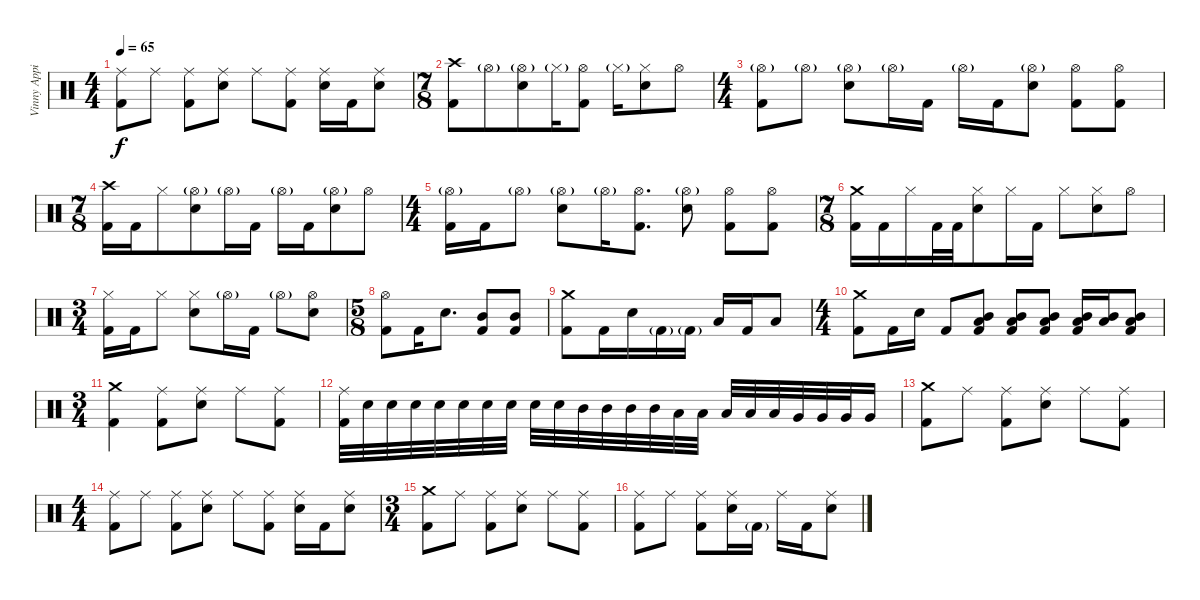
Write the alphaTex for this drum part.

\track ("Vinny Appice" "Vinny Appi") {instrument percussion}
\staff {score}
\articulation defaults
\ts (4 4)
\tempo 65
\clef neutral
\ks c
("Ride (middle)" "Kick (hit) 2").8{dy f} "Ride (middle)".8 ("Ride (middle)" "Kick (hit) 2").8 ("Ride (middle)" "Snare (hit) 2").8 "Ride (middle)".8 ("Ride (middle)" "Kick (hit) 2").8 ("Ride (middle)" "Snare (hit) 2").16 "Kick (hit) 2".16 ("Ride (middle)" "Snare (hit) 2").8 |
\ts (7 8)
("Crash high (hit)" "Kick (hit) 2").8 "Hi-Hat (open)"{g}.8 ("Hi-Hat (open)"{g} "Snare (hit) 2").8 "Hi-Hat (closed)"{g}.16 ("Hi-Hat (open)" "Kick (hit) 2").8 "Hi-Hat (closed)"{g}.16 ("Hi-Hat (closed)" "Snare (hit) 2").8 "Hi-Hat (open)".8 |
\ts (4 4)
("Hi-Hat (open)"{g} "Kick (hit) 2").8 "Hi-Hat (open)"{g}.8 ("Hi-Hat (open)"{g} "Snare (hit) 2").8 "Hi-Hat (open)"{g}.16 "Kick (hit) 2".16 "Hi-Hat (open)"{g}.16 "Kick (hit) 2".16 ("Hi-Hat (open)"{g} "Snare (hit) 2").8 ("Hi-Hat (open)" "Kick (hit) 2").8 ("Hi-Hat (open)" "Kick (hit) 2").8 |
\ts (7 8)
("Crash high (hit)" "Kick (hit) 2").16 "Kick (hit) 2".16 "Hi-Hat (closed)".8 ("Hi-Hat (open)"{g} "Snare (hit) 2").8 "Hi-Hat (open)"{g}.16 "Kick (hit) 2".16 "Hi-Hat (open)"{g}.16 "Kick (hit) 2".16 ("Hi-Hat (open)"{g} "Snare (hit) 2").8 "Hi-Hat (open)".8 |
\ts (4 4)
("Hi-Hat (open)"{g} "Kick (hit) 2").16 "Kick (hit) 2".16 "Hi-Hat (open)"{g}.8 ("Hi-Hat (open)"{g} "Snare (hit) 2").8 "Hi-Hat (open)"{g}.16 ("Hi-Hat (open)" "Kick (hit) 2").8{d} ("Hi-Hat (open)"{g} "Snare (hit) 2").8 ("Hi-Hat (open)" "Kick (hit) 2").8 ("Hi-Hat (open)" "Kick (hit) 2").8 |
\ts (7 8)
("Crash medium (hit)" "Kick (hit) 2").16 "Kick (hit) 2".16 "Hi-Hat (closed)".16 "Kick (hit) 2".32 "Kick (hit) 2".32 ("Hi-Hat (closed)" "Snare (hit) 2").8 "Hi-Hat (closed)".16 "Kick (hit) 2".16 "Hi-Hat (closed)".8 ("Hi-Hat (closed)" "Snare (hit) 2").8 "Hi-Hat (open)".8 |
\ts (3 4)
("Hi-Hat (closed)" "Kick (hit) 2").16 "Kick (hit) 2".16 "Hi-Hat (closed)".8 ("Hi-Hat (closed)" "Snare (hit) 2").8 "Hi-Hat (open)"{g}.16 "Kick (hit) 2".16 "Hi-Hat (open)"{g}.8 ("Hi-Hat (open)" "Snare (hit) 2").8 |
\ts (5 8)
("Hi-Hat (open)" "Kick (hit) 2").8 "Kick (hit) 2".16 "Snare (hit) 2".8{d} ("Mid Tom (hit)" "Kick (hit) 2").8 ("Mid Tom (hit)" "Kick (hit) 2").8 |
("Crash medium (hit)" "Kick (hit) 2").8 "Kick (hit) 2".16 "Snare (hit) 2".16 "Kick (hit) 2"{g}.16 "Kick (hit) 2"{g}.16 "Low Tom (hit)".16 "Kick (hit) 2".16 "Low Tom (hit)".8 |
\ts (4 4)
("Crash medium (hit)" "Kick (hit) 2").8 "Kick (hit) 2".16 "Snare (hit) 2".16 "Kick (hit) 2".8 ("Mid Tom (hit)" "Low Tom (hit)" "Kick (hit) 2").8 ("Mid Tom (hit)" "Low Tom (hit)" "Kick (hit) 2").8 ("Mid Tom (hit)" "Low Tom (hit)" "Kick (hit) 2").8 ("Mid Tom (hit)" "Low Tom (hit)" "Kick (hit) 2").16 ("Mid Tom (hit)" "Low Tom (hit)").16 ("Mid Tom (hit)" "Low Tom (hit)" "Kick (hit) 2").8 |
\ts (3 4)
("Crash medium (hit)" "Kick (hit) 2").4 ("Ride (middle)" "Kick (hit) 2").8 ("Ride (middle)" "Snare (hit) 2").8 "Ride (middle)".8 ("Ride (middle)" "Kick (hit) 2").8 |
("Ride (middle)" "Kick (hit) 2").32 "Snare (hit) 2".32 "Snare (hit) 2".32 "Snare (hit) 2".32 "Snare (hit) 2".32 "Snare (hit) 2".32 "Snare (hit) 2".32 "Snare (hit) 2".32 "Snare (hit) 2".32 "Snare (hit) 2".32 "Mid Tom (hit)".32 "Mid Tom (hit)".32 "Mid Tom (hit)".32 "Mid Tom (hit)".32 "Low Tom (hit)".32 "Low Tom (hit)".32 "Low Tom (hit)".32 "Low Tom (hit)".32 "Low Tom (hit)".32 "Very Low Tom (hit)".32 "Very Low Tom (hit)".32 "Very Low Tom (hit)".32 "Very Low Tom (hit)".16 |
("Crash medium (hit)" "Kick (hit) 2").8 "Ride (middle)".8 ("Ride (middle)" "Kick (hit) 2").8 ("Ride (middle)" "Snare (hit) 2").8 "Ride (middle)".8 ("Ride (middle)" "Kick (hit) 2").8 |
\ts (4 4)
("Ride (middle)" "Kick (hit) 2").8 "Ride (middle)".8 ("Ride (middle)" "Kick (hit) 2").8 ("Ride (middle)" "Snare (hit) 2").8 "Ride (middle)".8 ("Ride (middle)" "Kick (hit) 2").8 ("Ride (middle)" "Snare (hit) 2").16 "Kick (hit) 2".16 ("Ride (middle)" "Snare (hit) 2").8 |
\ts (3 4)
("Crash medium (hit)" "Kick (hit) 2").8 "Ride (middle)".8 ("Ride (middle)" "Kick (hit) 2").8 ("Ride (middle)" "Snare (hit) 2").8 "Ride (middle)".8 ("Ride (middle)" "Kick (hit) 2").8 |
("Ride (middle)" "Kick (hit) 2").8 "Ride (middle)".8 ("Ride (middle)" "Kick (hit) 2").8 ("Ride (middle)" "Snare (hit) 2").16 "Kick (hit) 2"{g}.16 "Ride (middle)".16 "Kick (hit) 2".16 ("Ride (middle)" "Snare (hit) 2").8
